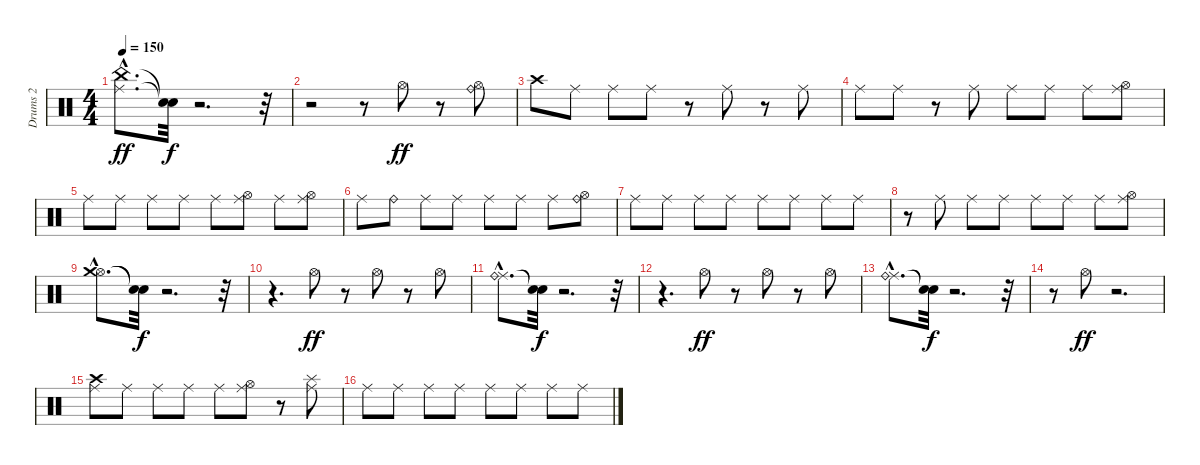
\track ("Drums 2" "Drums 2") {instrument percussion}
\staff {score}
\articulation defaults
\ts (4 4)
\tempo 150
\clef neutral
\ks c
("Ride (middle)"{hac} "China (hit)"{hac}).8{d dy ff} ("Snare (hit)"{t} "Snare (hit)"{t}).32{dy f} r.2{d} r.32 |
r.2 r.8 "Hi-Hat (open)".8{dy ff} r.8 ("Hi-Hat (open)" "Ride (bell)").8 |
"Crash high (hit)".8 "Ride (middle)".8 "Ride (middle)".8 "Ride (middle)".8 r.8 "Ride (middle)".8 r.8 "Ride (middle)".8 |
"Ride (middle)".8 "Ride (middle)".8 r.8 "Ride (middle)".8 "Ride (middle)".8 "Ride (middle)".8 "Ride (middle)".8 ("Hi-Hat (open)" "Ride (middle)").8 |
"Ride (middle)".8 "Ride (middle)".8 "Ride (middle)".8 "Ride (middle)".8 "Ride (middle)".8 ("Hi-Hat (open)" "Ride (middle)").8 "Ride (middle)".8 ("Hi-Hat (open)" "Ride (middle)").8 |
"Ride (middle)".8 "Ride (bell)".8 "Ride (middle)".8 "Ride (middle)".8 "Ride (middle)".8 "Ride (middle)".8 "Ride (middle)".8 ("Hi-Hat (open)" "Ride (bell)").8 |
"Ride (middle)".8 "Ride (middle)".8 "Ride (middle)".8 "Ride (middle)".8 "Ride (middle)".8 "Ride (middle)".8 "Ride (middle)".8 "Ride (middle)".8 |
r.8 "Ride (middle)".8 "Ride (middle)".8 "Ride (middle)".8 "Ride (middle)".8 "Ride (middle)".8 "Ride (middle)".8 ("Hi-Hat (open)" "Ride (middle)").8 |
("Hi-Hat (open)"{hac} "Crash medium (hit)"{hac}).8{d} ("Snare (hit)"{t} "Snare (hit)"{t}).32{dy f} r.2{d} r.32 |
r.4{d} "Hi-Hat (open)".8{dy ff} r.8 "Hi-Hat (open)".8 r.8 "Hi-Hat (open)".8 |
("Ride (middle)"{hac} "Ride (bell)"{hac}).8{d} ("Snare (hit)"{t} "Snare (hit)"{t}).32{dy f} r.2{d} r.32 |
r.4{d} "Hi-Hat (open)".8{dy ff} r.8 "Hi-Hat (open)".8 r.8 "Hi-Hat (open)".8 |
("Ride (middle)"{hac} "Ride (bell)"{hac}).8{d} ("Snare (hit)"{t} "Snare (hit)"{t}).32{dy f} r.2{d} r.32 |
r.8 "Hi-Hat (open)".8{dy ff} r.2{d} |
("Crash high (hit)" "Ride (middle)").8 "Ride (middle)".8 "Ride (middle)".8 "Ride (middle)".8 "Ride (middle)".8 ("Hi-Hat (open)" "Ride (middle)").8 r.8 ("Ride (middle)" "Splash (hit)").8 |
"Ride (middle)".8 "Ride (middle)".8 "Ride (middle)".8 "Ride (middle)".8 "Ride (middle)".8 "Ride (middle)".8 "Ride (middle)".8 "Ride (middle)".8
